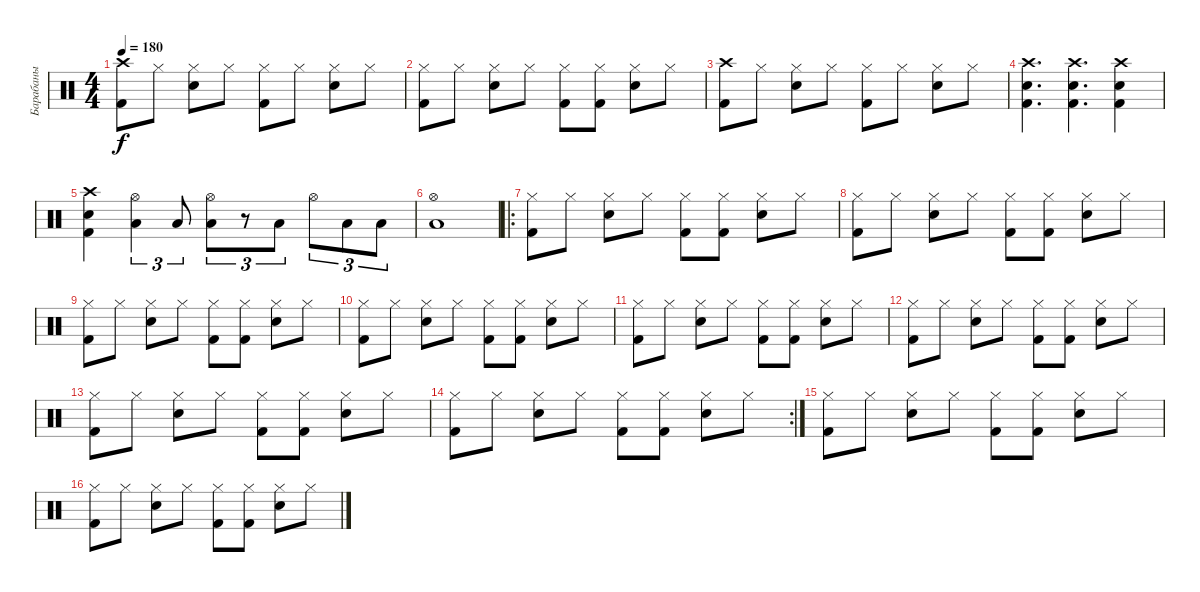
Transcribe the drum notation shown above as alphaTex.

\track ("Барабаны" "Барабаны") {instrument percussion}
\staff {score}
\articulation defaults
\ts (4 4)
\tempo 180
\clef neutral
\ks c
("Crash high (hit)" "Kick (hit) 2").8{dy f} "Hi-Hat (closed)".8 ("Hi-Hat (closed)" "Electric Snare (hit)").8 "Hi-Hat (closed)".8 ("Hi-Hat (closed)" "Kick (hit) 2").8 "Hi-Hat (closed)".8 ("Hi-Hat (closed)" "Electric Snare (hit)").8 "Hi-Hat (closed)".8 |
("Hi-Hat (closed)" "Kick (hit) 2").8 "Hi-Hat (closed)".8 ("Hi-Hat (closed)" "Electric Snare (hit)").8 "Hi-Hat (closed)".8 ("Hi-Hat (closed)" "Kick (hit) 2").8 ("Hi-Hat (closed)" "Kick (hit) 2").8 ("Hi-Hat (closed)" "Electric Snare (hit)").8 "Hi-Hat (closed)".8 |
("Crash high (hit)" "Kick (hit) 2").8 "Hi-Hat (closed)".8 ("Hi-Hat (closed)" "Electric Snare (hit)").8 "Hi-Hat (closed)".8 ("Hi-Hat (closed)" "Kick (hit) 2").8 "Hi-Hat (closed)".8 ("Hi-Hat (closed)" "Electric Snare (hit)").8 "Hi-Hat (closed)".8 |
("Crash high (hit)" "Kick (hit) 2" "Electric Snare (hit)").4{d} ("Crash high (hit)" "Kick (hit) 2" "Electric Snare (hit)").4{d} ("Crash high (hit)" "Kick (hit) 2" "Electric Snare (hit)").4 |
("Crash high (hit)" "Kick (hit) 2" "Electric Snare (hit)").4 ("Hi-Hat (open)" "Low Tom (hit)").4{tu (3 2)} "Low Tom (hit)".8{tu (3 2)} ("Hi-Hat (open)" "Low Tom (hit)").8{tu (3 2)} r.8{tu (3 2)} "Low Tom (hit)".8{tu (3 2)} "Hi-Hat (open)".8{tu (3 2)} "Low Tom (hit)".8{tu (3 2)} "Low Tom (hit)".8{tu (3 2)} |
("Hi-Hat (open)" "Low Tom (hit)").1 |
\ro
("Hi-Hat (closed)" "Kick (hit) 2").8 "Hi-Hat (closed)".8 ("Hi-Hat (closed)" "Electric Snare (hit)").8 "Hi-Hat (closed)".8 ("Hi-Hat (closed)" "Kick (hit) 2").8 ("Hi-Hat (closed)" "Kick (hit) 2").8 ("Hi-Hat (closed)" "Electric Snare (hit)").8 "Hi-Hat (closed)".8 |
("Hi-Hat (closed)" "Kick (hit) 2").8 "Hi-Hat (closed)".8 ("Hi-Hat (closed)" "Electric Snare (hit)").8 "Hi-Hat (closed)".8 ("Hi-Hat (closed)" "Kick (hit) 2").8 ("Hi-Hat (closed)" "Kick (hit) 2").8 ("Hi-Hat (closed)" "Electric Snare (hit)").8 "Hi-Hat (closed)".8 |
("Hi-Hat (closed)" "Kick (hit) 2").8 "Hi-Hat (closed)".8 ("Hi-Hat (closed)" "Electric Snare (hit)").8 "Hi-Hat (closed)".8 ("Hi-Hat (closed)" "Kick (hit) 2").8 ("Hi-Hat (closed)" "Kick (hit) 2").8 ("Hi-Hat (closed)" "Electric Snare (hit)").8 "Hi-Hat (closed)".8 |
("Hi-Hat (closed)" "Kick (hit) 2").8 "Hi-Hat (closed)".8 ("Hi-Hat (closed)" "Electric Snare (hit)").8 "Hi-Hat (closed)".8 ("Hi-Hat (closed)" "Kick (hit) 2").8 ("Hi-Hat (closed)" "Kick (hit) 2").8 ("Hi-Hat (closed)" "Electric Snare (hit)").8 "Hi-Hat (closed)".8 |
("Hi-Hat (closed)" "Kick (hit) 2").8 "Hi-Hat (closed)".8 ("Hi-Hat (closed)" "Electric Snare (hit)").8 "Hi-Hat (closed)".8 ("Hi-Hat (closed)" "Kick (hit) 2").8 ("Hi-Hat (closed)" "Kick (hit) 2").8 ("Hi-Hat (closed)" "Electric Snare (hit)").8 "Hi-Hat (closed)".8 |
("Hi-Hat (closed)" "Kick (hit) 2").8 "Hi-Hat (closed)".8 ("Hi-Hat (closed)" "Electric Snare (hit)").8 "Hi-Hat (closed)".8 ("Hi-Hat (closed)" "Kick (hit) 2").8 ("Hi-Hat (closed)" "Kick (hit) 2").8 ("Hi-Hat (closed)" "Electric Snare (hit)").8 "Hi-Hat (closed)".8 |
("Hi-Hat (closed)" "Kick (hit) 2").8 "Hi-Hat (closed)".8 ("Hi-Hat (closed)" "Electric Snare (hit)").8 "Hi-Hat (closed)".8 ("Hi-Hat (closed)" "Kick (hit) 2").8 ("Hi-Hat (closed)" "Kick (hit) 2").8 ("Hi-Hat (closed)" "Electric Snare (hit)").8 "Hi-Hat (closed)".8 |
\rc 2
("Hi-Hat (closed)" "Kick (hit) 2").8 "Hi-Hat (closed)".8 ("Hi-Hat (closed)" "Electric Snare (hit)").8 "Hi-Hat (closed)".8 ("Hi-Hat (closed)" "Kick (hit) 2").8 ("Hi-Hat (closed)" "Kick (hit) 2").8 ("Hi-Hat (closed)" "Electric Snare (hit)").8 "Hi-Hat (closed)".8 |
("Hi-Hat (closed)" "Kick (hit) 2").8 "Hi-Hat (closed)".8 ("Hi-Hat (closed)" "Electric Snare (hit)").8 "Hi-Hat (closed)".8 ("Hi-Hat (closed)" "Kick (hit) 2").8 ("Hi-Hat (closed)" "Kick (hit) 2").8 ("Hi-Hat (closed)" "Electric Snare (hit)").8 "Hi-Hat (closed)".8 |
("Hi-Hat (closed)" "Kick (hit) 2").8 "Hi-Hat (closed)".8 ("Hi-Hat (closed)" "Electric Snare (hit)").8 "Hi-Hat (closed)".8 ("Hi-Hat (closed)" "Kick (hit) 2").8 ("Hi-Hat (closed)" "Kick (hit) 2").8 ("Hi-Hat (closed)" "Electric Snare (hit)").8 "Hi-Hat (closed)".8
